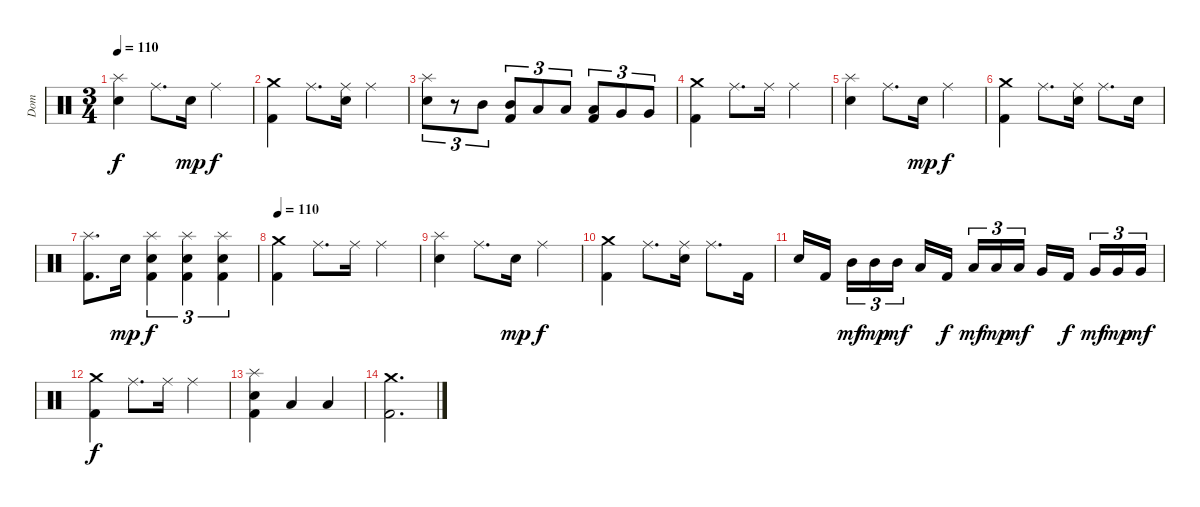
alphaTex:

\track ("Dom" "Dom") {instrument percussion}
\staff {score}
\articulation defaults
\ts (3 4)
\tempo 110
\clef neutral
\ks c
("Splash (hit)" "Snare (hit) 2").4{dy f} "Ride (middle)".8{d} "Snare (hit) 2".16{dy mp} "Ride (middle)".4{dy f} |
("Crash medium (hit)" "Kick (hit) 2").4 "Ride (middle)".8{d} ("Ride (middle)" "Snare (hit) 2").16 "Ride (middle)".4 |
("Splash (hit)" "Snare (hit) 2").8{tu (3 2)} r.8{tu (3 2)} "Mid Tom (hit)".8{tu (3 2)} ("Mid Tom (hit)" "Kick (hit) 2").8{tu (3 2)} "Low Tom (hit)".8{tu (3 2)} "Low Tom (hit)".8{tu (3 2)} ("Low Tom (hit)" "Kick (hit) 2").8{tu (3 2)} "Very Low Tom (hit)".8{tu (3 2)} "Very Low Tom (hit)".8{tu (3 2)} |
("Crash medium (hit)" "Kick (hit) 2").4 "Ride (middle)".8{d} "Ride (middle)".16 "Ride (middle)".4 |
("Splash (hit)" "Snare (hit) 2").4 "Ride (middle)".8{d} "Snare (hit) 2".16{dy mp} "Ride (middle)".4{dy f} |
("Crash medium (hit)" "Kick (hit) 2").4 "Ride (middle)".8{d} ("Ride (middle)" "Snare (hit) 2").16 "Ride (middle)".8{d} "Snare (hit) 2".16 |
("Splash (hit)" "Kick (hit) 2").8{d} "Snare (hit) 2".16{dy mp} ("Splash (hit)" "Snare (hit) 2" "Kick (hit) 2").4{tu (3 2) dy f} ("Splash (hit)" "Snare (hit) 2" "Kick (hit) 2").4{tu (3 2)} ("Splash (hit)" "Snare (hit) 2" "Kick (hit) 2").4{tu (3 2)} |
\tempo 110
("Crash medium (hit)" "Kick (hit) 2").4 "Ride (middle)".8{d} "Ride (middle)".16 "Ride (middle)".4 |
("Splash (hit)" "Snare (hit) 2").4 "Ride (middle)".8{d} "Snare (hit) 2".16{dy mp} "Ride (middle)".4{dy f} |
("Crash medium (hit)" "Kick (hit) 2").4 "Ride (middle)".8{d} ("Ride (middle)" "Snare (hit) 2").16 "Ride (middle)".8{d} "Kick (hit) 2".16 |
"Snare (hit) 2".16 "Kick (hit) 2".16{beam splitsecondary} "Mid Tom (hit)".16{tu (3 2) dy mf} "Mid Tom (hit)".16{tu (3 2) dy mp} "Mid Tom (hit)".16{tu (3 2) dy mf} "Low Tom (hit)".16 "Kick (hit) 2".16{dy f beam splitsecondary} "Low Tom (hit)".16{tu (3 2) dy mf} "Low Tom (hit)".16{tu (3 2) dy mp} "Low Tom (hit)".16{tu (3 2) dy mf} "Very Low Tom (hit)".16 "Kick (hit) 2".16{dy f beam splitsecondary} "Very Low Tom (hit)".16{tu (3 2) dy mf} "Very Low Tom (hit)".16{tu (3 2) dy mp} "Very Low Tom (hit)".16{tu (3 2) dy mf} |
("Crash medium (hit)" "Kick (hit) 2").4{dy f} "Ride (middle)".8{d} "Ride (middle)".16 "Ride (middle)".4 |
("Splash (hit)" "Snare (hit) 2" "Kick (hit) 2").4 "Low Tom (hit)".4 "Low Tom (hit)".4 |
("Crash medium (hit)" "Kick (hit) 2").2{d}
